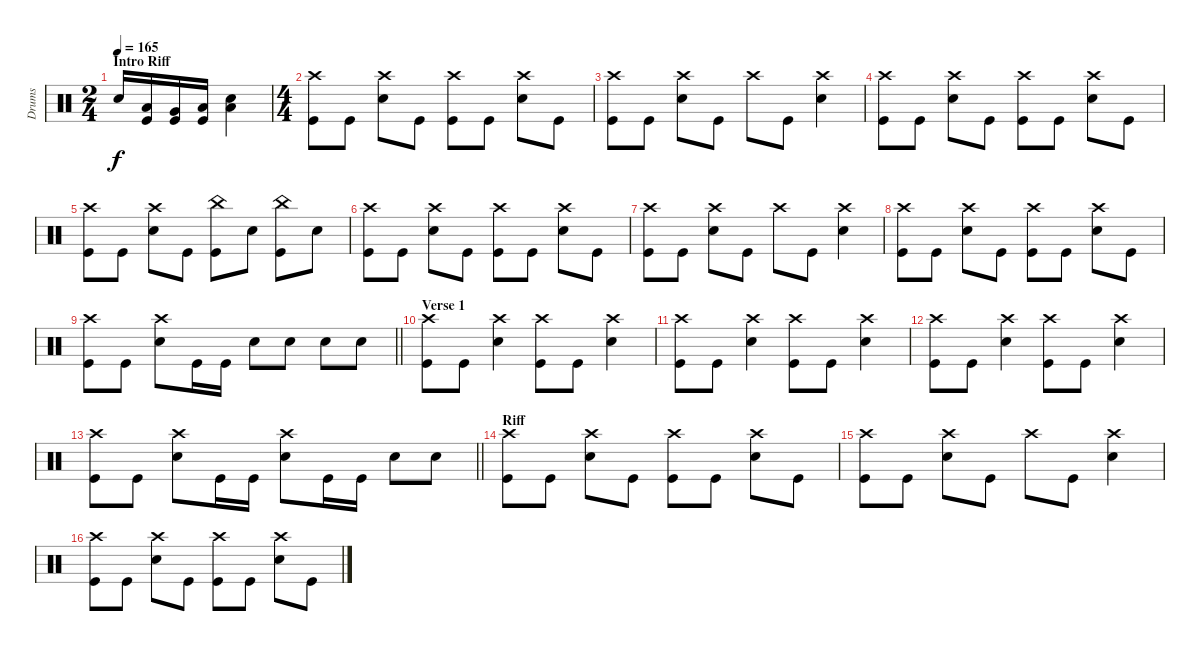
\track ("Drums" "Drums") {instrument percussion}
\staff {score}
\articulation defaults
\ts (2 4)
\section ("" "Intro Riff")
\tempo 165
\clef neutral
\ks c "Snare (hit) 2".16{dy f}
("Low Tom (hit)" "Kick (hit)").16 ("Very Low Tom (hit)" "Kick (hit)").16 ("Low Floor Tom (hit)" "Kick (hit)").16 ("Low Tom (hit)" "Snare (hit) 2").4 |
\ts (4 4)
("Kick (hit)" "Crash high (hit)").8 "Kick (hit)".8 ("Snare (hit) 2" "Crash high (hit)").8 "Kick (hit)".8 ("Kick (hit)" "Crash high (hit)").8 "Kick (hit)".8 ("Snare (hit) 2" "Crash high (hit)").8 "Kick (hit)".8 |
("Kick (hit)" "Crash high (hit)").8 "Kick (hit)".8 ("Snare (hit) 2" "Crash high (hit)").8 "Kick (hit)".8 "Crash high (hit)".8 "Kick (hit)".8 ("Snare (hit) 2" "Crash high (hit)").4 |
("Kick (hit)" "Crash high (hit)").8 "Kick (hit)".8 ("Snare (hit) 2" "Crash high (hit)").8 "Kick (hit)".8 ("Kick (hit)" "Crash high (hit)").8 "Kick (hit)".8 ("Snare (hit) 2" "Crash high (hit)").8 "Kick (hit)".8 |
("Kick (hit)" "Crash high (hit)").8 "Kick (hit)".8 ("Snare (hit) 2" "Crash high (hit)").8 "Kick (hit)".8 ("Kick (hit)" "China (hit)").8 "Snare (hit) 2".8 ("Kick (hit)" "China (hit)").8 "Snare (hit) 2".8 |
("Kick (hit)" "Crash high (hit)").8 "Kick (hit)".8 ("Snare (hit) 2" "Crash high (hit)").8 "Kick (hit)".8 ("Kick (hit)" "Crash high (hit)").8 "Kick (hit)".8 ("Snare (hit) 2" "Crash high (hit)").8 "Kick (hit)".8 |
("Kick (hit)" "Crash high (hit)").8 "Kick (hit)".8 ("Snare (hit) 2" "Crash high (hit)").8 "Kick (hit)".8 "Crash high (hit)".8 "Kick (hit)".8 ("Snare (hit) 2" "Crash high (hit)").4 |
("Kick (hit)" "Crash high (hit)").8 "Kick (hit)".8 ("Snare (hit) 2" "Crash high (hit)").8 "Kick (hit)".8 ("Kick (hit)" "Crash high (hit)").8 "Kick (hit)".8 ("Snare (hit) 2" "Crash high (hit)").8 "Kick (hit)".8 |
\barLineRight lightlight
("Kick (hit)" "Crash high (hit)").8 "Kick (hit)".8 ("Snare (hit) 2" "Crash high (hit)").8 "Kick (hit)".16 "Kick (hit)".16 "Snare (hit) 2".8 "Snare (hit) 2".8 "Snare (hit) 2".8 "Snare (hit) 2".8 |
\section ("" "Verse 1")
("Kick (hit)" "Crash high (hit)").8 "Kick (hit)".8 ("Snare (hit) 2" "Crash high (hit)").4 ("Kick (hit)" "Crash high (hit)").8 "Kick (hit)".8 ("Snare (hit) 2" "Crash high (hit)").4 |
("Kick (hit)" "Crash high (hit)").8 "Kick (hit)".8 ("Snare (hit) 2" "Crash high (hit)").4 ("Kick (hit)" "Crash high (hit)").8 "Kick (hit)".8 ("Snare (hit) 2" "Crash high (hit)").4 |
("Kick (hit)" "Crash high (hit)").8 "Kick (hit)".8 ("Snare (hit) 2" "Crash high (hit)").4 ("Kick (hit)" "Crash high (hit)").8 "Kick (hit)".8 ("Snare (hit) 2" "Crash high (hit)").4 |
\barLineRight lightlight
("Kick (hit)" "Crash high (hit)").8 "Kick (hit)".8 ("Snare (hit) 2" "Crash high (hit)").8 "Kick (hit)".16 "Kick (hit)".16 ("Snare (hit) 2" "Crash high (hit)").8 "Kick (hit)".16 "Kick (hit)".16 "Snare (hit) 2".8 "Snare (hit) 2".8 |
\section ("" "Riff")
("Kick (hit)" "Crash high (hit)").8 "Kick (hit)".8 ("Snare (hit) 2" "Crash high (hit)").8 "Kick (hit)".8 ("Kick (hit)" "Crash high (hit)").8 "Kick (hit)".8 ("Snare (hit) 2" "Crash high (hit)").8 "Kick (hit)".8 |
("Kick (hit)" "Crash high (hit)").8 "Kick (hit)".8 ("Snare (hit) 2" "Crash high (hit)").8 "Kick (hit)".8 "Crash high (hit)".8 "Kick (hit)".8 ("Snare (hit) 2" "Crash high (hit)").4 |
("Kick (hit)" "Crash high (hit)").8 "Kick (hit)".8 ("Snare (hit) 2" "Crash high (hit)").8 "Kick (hit)".8 ("Kick (hit)" "Crash high (hit)").8 "Kick (hit)".8 ("Snare (hit) 2" "Crash high (hit)").8 "Kick (hit)".8
